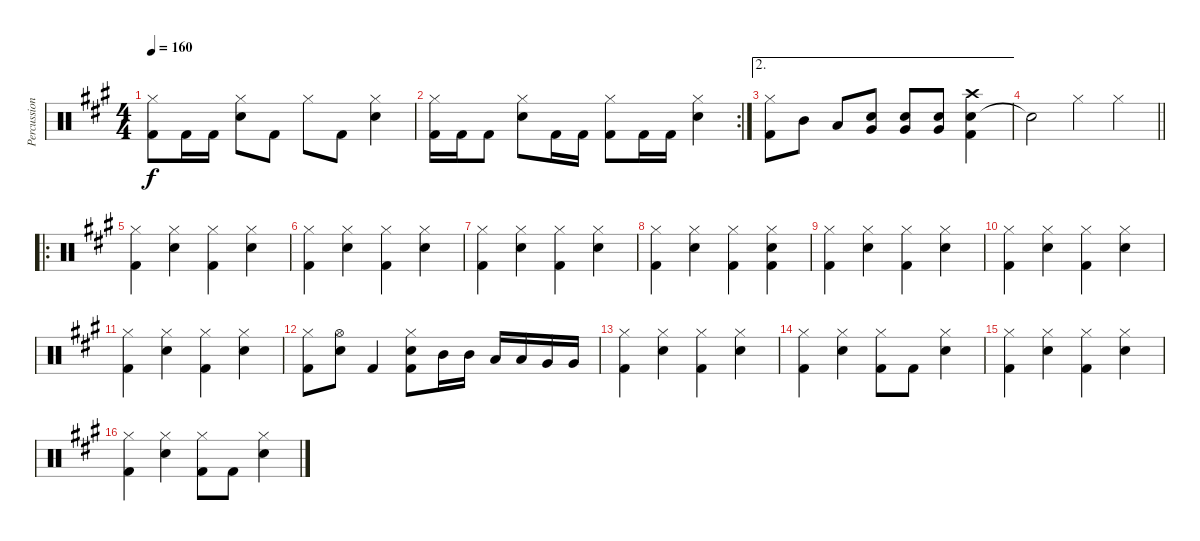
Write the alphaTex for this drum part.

\track ("Percussions" "Percussion") {instrument percussion}
\staff {score}
\articulation defaults
\ts (4 4)
\tempo 160
\clef neutral
\ks a
("Hi-Hat (closed)" "Kick (hit) 2").8{dy f} "Kick (hit) 2".16 "Kick (hit) 2".16 ("Hi-Hat (closed)" "Snare (hit) 2").8 "Kick (hit) 2".8 "Hi-Hat (closed)".8 "Kick (hit) 2".8 ("Hi-Hat (closed)" "Snare (hit) 2").4 |
\rc 2
("Hi-Hat (closed)" "Kick (hit) 2").16 "Kick (hit) 2".16 "Kick (hit) 2".8 ("Hi-Hat (closed)" "Snare (hit) 2").8 "Kick (hit) 2".16 "Kick (hit) 2".16 ("Hi-Hat (closed)" "Kick (hit) 2").8 "Kick (hit) 2".16 "Kick (hit) 2".16 ("Hi-Hat (closed)" "Snare (hit) 2").4 |
\ae 2
("Hi-Hat (closed)" "Kick (hit) 2").8 "Mid Tom (hit)".8 "Low Tom (hit)".8 ("Snare (hit) 2" "Very Low Tom (hit)").8 ("Snare (hit) 2" "Very Low Tom (hit)").8 ("Snare (hit) 2" "Very Low Tom (hit)").8 ("Snare (hit) 2" "Kick (hit) 2" "Crash high (hit)").4 |
\barLineRight lightlight "Snare (hit)"{t}.2 "Hi-Hat (closed)".4 "Hi-Hat (closed)".4
|
\ro
("Hi-Hat (closed)" "Kick (hit) 2").4 ("Hi-Hat (closed)" "Snare (hit) 2").4 ("Hi-Hat (closed)" "Kick (hit) 2").4 ("Hi-Hat (closed)" "Snare (hit) 2").4 |
("Hi-Hat (closed)" "Kick (hit) 2").4 ("Hi-Hat (closed)" "Snare (hit) 2").4 ("Hi-Hat (closed)" "Kick (hit) 2").4 ("Hi-Hat (closed)" "Snare (hit) 2").4 |
("Hi-Hat (closed)" "Kick (hit) 2").4 ("Hi-Hat (closed)" "Snare (hit) 2").4 ("Hi-Hat (closed)" "Kick (hit) 2").4 ("Hi-Hat (closed)" "Snare (hit) 2").4 |
("Hi-Hat (closed)" "Kick (hit) 2").4 ("Hi-Hat (closed)" "Snare (hit) 2").4 ("Hi-Hat (closed)" "Kick (hit) 2").4 ("Hi-Hat (closed)" "Snare (hit) 2" "Kick (hit) 2").4 |
("Hi-Hat (closed)" "Kick (hit) 2").4 ("Hi-Hat (closed)" "Snare (hit) 2").4 ("Hi-Hat (closed)" "Kick (hit) 2").4 ("Hi-Hat (closed)" "Snare (hit) 2").4 |
("Hi-Hat (closed)" "Kick (hit) 2").4 ("Hi-Hat (closed)" "Snare (hit) 2").4 ("Hi-Hat (closed)" "Kick (hit) 2").4 ("Hi-Hat (closed)" "Snare (hit) 2").4 |
("Hi-Hat (closed)" "Kick (hit) 2").4 ("Hi-Hat (closed)" "Snare (hit) 2").4 ("Hi-Hat (closed)" "Kick (hit) 2").4 ("Hi-Hat (closed)" "Snare (hit) 2").4 |
("Hi-Hat (closed)" "Kick (hit) 2").8 ("Hi-Hat (open)" "Snare (hit) 2").8 "Kick (hit) 2".4 ("Hi-Hat (closed)" "Snare (hit) 2" "Kick (hit) 2").8 "Mid Tom (hit)".16 "Mid Tom (hit)".16 "Low Tom (hit)".16 "Low Tom (hit)".16 "Very Low Tom (hit)".16 "Very Low Tom (hit)".16 |
("Hi-Hat (closed)" "Kick (hit) 2").4 ("Hi-Hat (closed)" "Snare (hit) 2").4 ("Hi-Hat (closed)" "Kick (hit) 2").4 ("Hi-Hat (closed)" "Snare (hit) 2").4 |
("Hi-Hat (closed)" "Kick (hit) 2").4 ("Hi-Hat (closed)" "Snare (hit) 2").4 ("Hi-Hat (closed)" "Kick (hit) 2").8 "Kick (hit) 2".8 ("Hi-Hat (closed)" "Snare (hit) 2").4 |
("Hi-Hat (closed)" "Kick (hit) 2").4 ("Hi-Hat (closed)" "Snare (hit) 2").4 ("Hi-Hat (closed)" "Kick (hit) 2").4 ("Hi-Hat (closed)" "Snare (hit) 2").4 |
("Hi-Hat (closed)" "Kick (hit) 2").4 ("Hi-Hat (closed)" "Snare (hit) 2").4 ("Hi-Hat (closed)" "Kick (hit) 2").8 "Kick (hit) 2".8 ("Hi-Hat (closed)" "Snare (hit) 2").4
